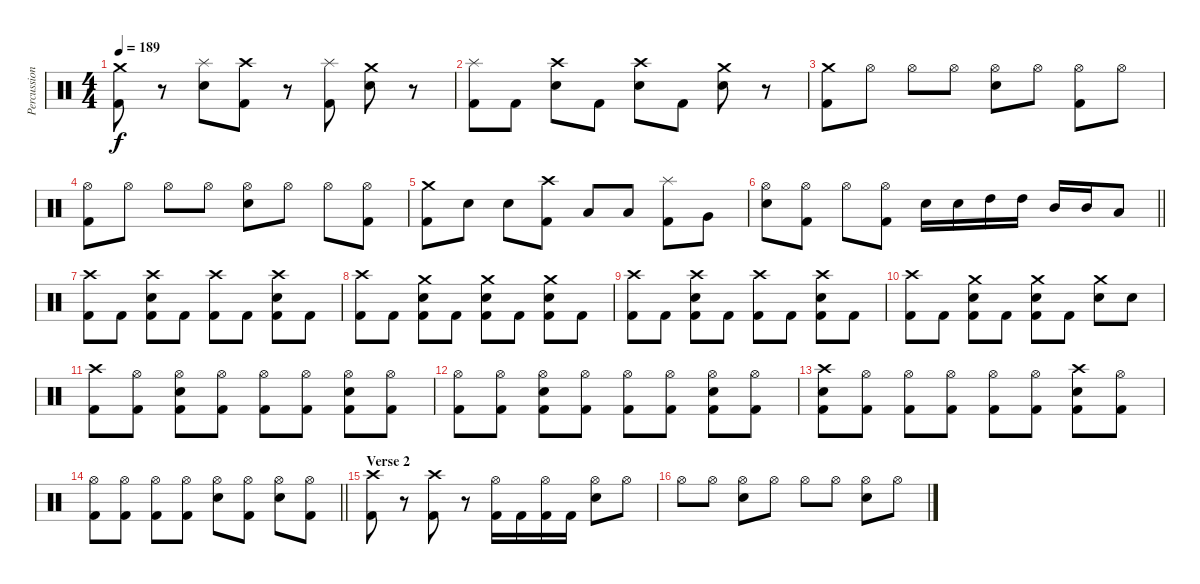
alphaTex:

\track ("Percussion" "Percussion") {instrument percussion}
\staff {score}
\articulation defaults
\ts (4 4)
\tempo 189
\clef neutral
\ks c
("Crash medium (hit)" "Kick (hit) 2").8{dy f} r.8 ("Splash (hit)" "Electric Snare (hit)").8 ("Crash high (hit)" "Kick (hit) 2").8 r.8 ("Splash (hit)" "Kick (hit) 2").8 ("Crash medium (hit)" "Electric Snare (hit)").8 r.8 |
("Splash (hit)" "Kick (hit) 2").8 "Kick (hit) 2".8 ("Crash high (hit)" "Electric Snare (hit)").8 "Kick (hit) 2".8 ("Crash high (hit)" "Electric Snare (hit)").8 "Kick (hit) 2".8 ("Crash medium (hit)" "Electric Snare (hit)").8 r.8 |
("Crash medium (hit)" "Kick (hit) 2").8 "Hi-Hat (open)".8 "Hi-Hat (open)".8 "Hi-Hat (open)".8 ("Hi-Hat (open)" "Electric Snare (hit)").8 "Hi-Hat (open)".8 ("Hi-Hat (open)" "Kick (hit) 2").8 "Hi-Hat (open)".8 |
("Hi-Hat (open)" "Kick (hit) 2").8 "Hi-Hat (open)".8 "Hi-Hat (open)".8 "Hi-Hat (open)".8 ("Hi-Hat (open)" "Electric Snare (hit)").8 "Hi-Hat (open)".8 "Hi-Hat (open)".8 ("Hi-Hat (open)" "Kick (hit) 2").8 |
("Crash medium (hit)" "Kick (hit) 2").8 "Electric Snare (hit)".8 "Electric Snare (hit)".8 ("Crash high (hit)" "Kick (hit) 2").8 "Low Tom (hit)".8 "Low Tom (hit)".8 ("Splash (hit)" "Kick (hit) 2").8 "Very Low Tom (hit)".8 |
\barLineRight lightlight
("Hi-Hat (open)" "Electric Snare (hit)").8 ("Hi-Hat (open)" "Kick (hit) 2").8 "Hi-Hat (open)".8 ("Hi-Hat (open)" "Kick (hit) 2").8 "Electric Snare (hit)".16 "Electric Snare (hit)".16 "High Tom (hit)".16 "High Tom (hit)".16 "Mid Tom (hit)".16 "Mid Tom (hit)".16 "Low Tom (hit)".8 |
("Crash high (hit)" "Kick (hit) 2").8 "Kick (hit) 2".8 ("Crash high (hit)" "Electric Snare (hit)" "Kick (hit) 2").8 "Kick (hit) 2".8 ("Crash high (hit)" "Kick (hit) 2").8 "Kick (hit) 2".8 ("Crash high (hit)" "Electric Snare (hit)" "Kick (hit) 2").8 "Kick (hit) 2".8 |
("Crash high (hit)" "Kick (hit) 2").8 "Kick (hit) 2".8 ("Crash medium (hit)" "Electric Snare (hit)" "Kick (hit) 2").8 "Kick (hit) 2".8 ("Crash medium (hit)" "Electric Snare (hit)" "Kick (hit) 2").8 "Kick (hit) 2".8 ("Crash medium (hit)" "Electric Snare (hit)" "Kick (hit) 2").8 "Kick (hit) 2".8 |
("Crash high (hit)" "Kick (hit) 2").8 "Kick (hit) 2".8 ("Crash high (hit)" "Electric Snare (hit)" "Kick (hit) 2").8 "Kick (hit) 2".8 ("Crash high (hit)" "Kick (hit) 2").8 "Kick (hit) 2".8 ("Crash high (hit)" "Electric Snare (hit)" "Kick (hit) 2").8 "Kick (hit) 2".8 |
("Crash high (hit)" "Kick (hit) 2").8 "Kick (hit) 2".8 ("Crash medium (hit)" "Electric Snare (hit)" "Kick (hit) 2").8 "Kick (hit) 2".8 ("Crash medium (hit)" "Electric Snare (hit)" "Kick (hit) 2").8 "Kick (hit) 2".8 ("Crash medium (hit)" "Electric Snare (hit)").8 "Electric Snare (hit)".8 |
("Crash high (hit)" "Kick (hit) 2").8 ("Hi-Hat (open)" "Kick (hit) 2").8 ("Hi-Hat (open)" "Electric Snare (hit)" "Kick (hit) 2").8 ("Hi-Hat (open)" "Kick (hit) 2").8 ("Hi-Hat (open)" "Kick (hit) 2").8 ("Hi-Hat (open)" "Kick (hit) 2").8 ("Hi-Hat (open)" "Electric Snare (hit)" "Kick (hit) 2").8 ("Hi-Hat (open)" "Kick (hit) 2").8 |
("Hi-Hat (open)" "Kick (hit) 2").8 ("Hi-Hat (open)" "Kick (hit) 2").8 ("Hi-Hat (open)" "Electric Snare (hit)" "Kick (hit) 2").8 ("Hi-Hat (open)" "Kick (hit) 2").8 ("Hi-Hat (open)" "Kick (hit) 2").8 ("Hi-Hat (open)" "Kick (hit) 2").8 ("Hi-Hat (open)" "Electric Snare (hit)" "Kick (hit) 2").8 ("Hi-Hat (open)" "Kick (hit) 2").8 |
("Crash high (hit)" "Electric Snare (hit)" "Kick (hit) 2").8 ("Hi-Hat (open)" "Kick (hit) 2").8 ("Hi-Hat (open)" "Kick (hit) 2").8 ("Hi-Hat (open)" "Kick (hit) 2").8 ("Hi-Hat (open)" "Kick (hit) 2").8 ("Hi-Hat (open)" "Kick (hit) 2").8 ("Crash high (hit)" "Electric Snare (hit)" "Kick (hit) 2").8 ("Hi-Hat (open)" "Kick (hit) 2").8 |
\barLineRight lightlight
("Hi-Hat (open)" "Kick (hit) 2").8 ("Hi-Hat (open)" "Kick (hit) 2").8 ("Hi-Hat (open)" "Kick (hit) 2").8 ("Hi-Hat (open)" "Kick (hit) 2").8 ("Hi-Hat (open)" "Electric Snare (hit)").8 ("Hi-Hat (open)" "Kick (hit) 2").8 ("Hi-Hat (open)" "Electric Snare (hit)").8 ("Hi-Hat (open)" "Kick (hit) 2").8 |
\section ("" "Verse 2")
("Crash high (hit)" "Kick (hit) 2").8 r.8 ("Crash high (hit)" "Kick (hit) 2").8 r.8 ("Hi-Hat (open)" "Kick (hit) 2").16 "Kick (hit) 2".16 ("Hi-Hat (open)" "Kick (hit) 2").16 "Kick (hit) 2".16 ("Hi-Hat (open)" "Electric Snare (hit)").8 "Hi-Hat (open)".8 |
"Hi-Hat (open)".8 "Hi-Hat (open)".8 ("Hi-Hat (open)" "Electric Snare (hit)").8 "Hi-Hat (open)".8 "Hi-Hat (open)".8 "Hi-Hat (open)".8 ("Hi-Hat (open)" "Electric Snare (hit)").8 "Hi-Hat (open)".8
